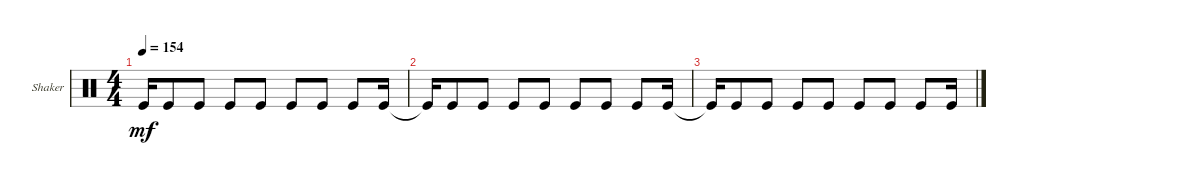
\defaultSystemsLayout 4
\bracketExtendMode groupsimilarinstruments
\firstSystemTrackNameOrientation horizontal
\otherSystemsTrackNameOrientation horizontal
\track ("Shaker" "Shaker") {instrument percussion}
\staff {score}
\articulation defaults
\ts (4 4)
\tempo 154
\clef neutral
\ks c "Kick (hit)"{t}.16{dy mf} "Kick (hit)".8 "Kick (hit)".8 "Kick (hit)".8 "Kick (hit)".8 "Kick (hit)".8 "Kick (hit)".8 "Kick (hit)".8 "Kick (hit)".16
|
"Kick (hit)"{t}.16 "Kick (hit)".8 "Kick (hit)".8 "Kick (hit)".8 "Kick (hit)".8 "Kick (hit)".8 "Kick (hit)".8 "Kick (hit)".8 "Kick (hit)".16 |
"Kick (hit)"{t}.16 "Kick (hit)".8 "Kick (hit)".8 "Kick (hit)".8 "Kick (hit)".8 "Kick (hit)".8 "Kick (hit)".8 "Kick (hit)".8 "Kick (hit)".16
